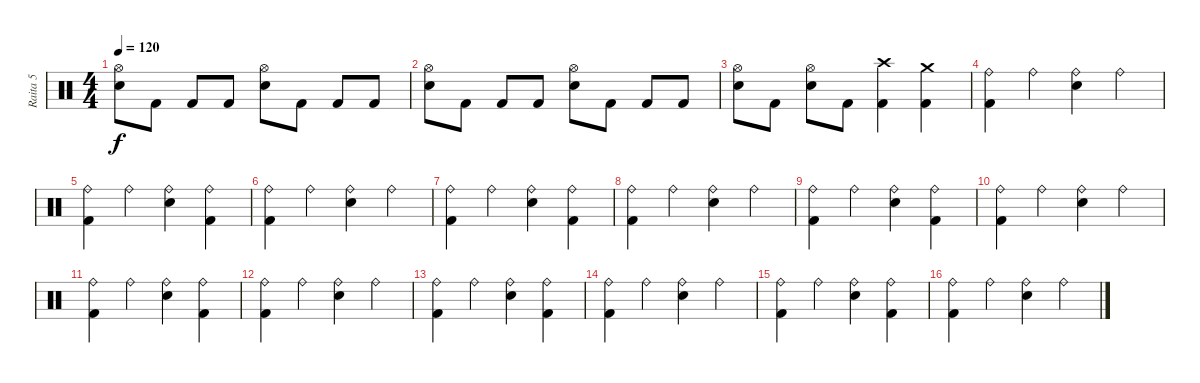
\track ("Raita 5" "Raita 5") {instrument percussion}
\staff {score}
\articulation defaults
\ts (4 4)
\tempo 120
\clef neutral
\ks c
("Hi-Hat (open)" "Snare (hit) 2").8{dy f} "Kick (hit) 2".8 "Kick (hit) 2".8 "Kick (hit) 2".8 ("Hi-Hat (open)" "Snare (hit) 2").8 "Kick (hit) 2".8 "Kick (hit) 2".8 "Kick (hit) 2".8 |
("Hi-Hat (open)" "Snare (hit) 2").8 "Kick (hit) 2".8 "Kick (hit) 2".8 "Kick (hit) 2".8 ("Hi-Hat (open)" "Snare (hit) 2").8 "Kick (hit) 2".8 "Kick (hit) 2".8 "Kick (hit) 2".8 |
("Hi-Hat (open)" "Snare (hit) 2").8 "Kick (hit) 2".8 ("Hi-Hat (open)" "Snare (hit) 2").8 "Kick (hit) 2".8 ("Crash high (hit)" "Kick (hit) 2").4 ("Crash medium (hit)" "Kick (hit) 2").4 |
("Ride (bell)" "Kick (hit) 2").4 "Ride (bell)".4 ("Ride (bell)" "Snare (hit) 2").4 "Ride (bell)".4 |
("Ride (bell)" "Kick (hit) 2").4 "Ride (bell)".4 ("Ride (bell)" "Snare (hit) 2").4 ("Ride (bell)" "Kick (hit) 2").4 |
("Ride (bell)" "Kick (hit) 2").4 "Ride (bell)".4 ("Ride (bell)" "Snare (hit) 2").4 "Ride (bell)".4 |
("Ride (bell)" "Kick (hit) 2").4 "Ride (bell)".4 ("Ride (bell)" "Snare (hit) 2").4 ("Ride (bell)" "Kick (hit) 2").4 |
("Ride (bell)" "Kick (hit) 2").4 "Ride (bell)".4 ("Ride (bell)" "Snare (hit) 2").4 "Ride (bell)".4 |
("Ride (bell)" "Kick (hit) 2").4 "Ride (bell)".4 ("Ride (bell)" "Snare (hit) 2").4 ("Ride (bell)" "Kick (hit) 2").4 |
("Ride (bell)" "Kick (hit) 2").4 "Ride (bell)".4 ("Ride (bell)" "Snare (hit) 2").4 "Ride (bell)".4 |
("Ride (bell)" "Kick (hit) 2").4 "Ride (bell)".4 ("Ride (bell)" "Snare (hit) 2").4 ("Ride (bell)" "Kick (hit) 2").4 |
("Ride (bell)" "Kick (hit) 2").4 "Ride (bell)".4 ("Ride (bell)" "Snare (hit) 2").4 "Ride (bell)".4 |
("Ride (bell)" "Kick (hit) 2").4 "Ride (bell)".4 ("Ride (bell)" "Snare (hit) 2").4 ("Ride (bell)" "Kick (hit) 2").4 |
("Ride (bell)" "Kick (hit) 2").4 "Ride (bell)".4 ("Ride (bell)" "Snare (hit) 2").4 "Ride (bell)".4 |
("Ride (bell)" "Kick (hit) 2").4 "Ride (bell)".4 ("Ride (bell)" "Snare (hit) 2").4 ("Ride (bell)" "Kick (hit) 2").4 |
("Ride (bell)" "Kick (hit) 2").4 "Ride (bell)".4 ("Ride (bell)" "Snare (hit) 2").4 "Ride (bell)".4
